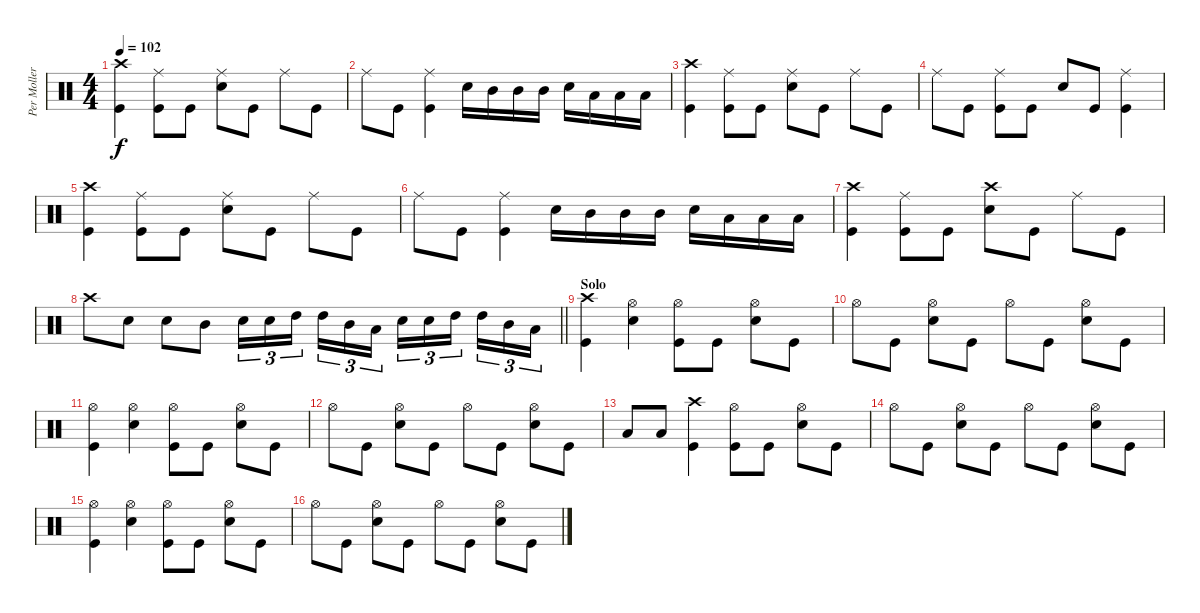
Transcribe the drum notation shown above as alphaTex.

\track ("Per Moller Jensen" "Per Moller") {instrument percussion}
\staff {score}
\articulation defaults
\ts (4 4)
\tempo 102
\clef neutral
\ks c
("Crash high (hit)" "Kick (hit)").4{dy f} ("Ride (middle)" "Kick (hit)").8 "Kick (hit)".8 ("Ride (middle)" "Snare (hit) 2").8 "Kick (hit)".8 "Ride (middle)".8 "Kick (hit)".8 |
"Ride (middle)".8 "Kick (hit)".8 ("Ride (middle)" "Kick (hit)").4 "Snare (hit) 2".16 "Mid Tom (hit)".16 "Mid Tom (hit)".16 "Mid Tom (hit)".16 "Snare (hit) 2".16 "Low Tom (hit)".16 "Low Tom (hit)".16 "Low Tom (hit)".16 |
("Crash high (hit)" "Kick (hit)").4 ("Ride (middle)" "Kick (hit)").8 "Kick (hit)".8 ("Ride (middle)" "Snare (hit) 2").8 "Kick (hit)".8 "Ride (middle)".8 "Kick (hit)".8 |
"Ride (middle)".8 "Kick (hit)".8 ("Ride (middle)" "Kick (hit)").8 "Kick (hit)".8 "Snare (hit) 2".8 "Kick (hit)".8 ("Ride (middle)" "Kick (hit)").4 |
("Crash high (hit)" "Kick (hit)").4 ("Ride (middle)" "Kick (hit)").8 "Kick (hit)".8 ("Ride (middle)" "Snare (hit) 2").8 "Kick (hit)".8 "Ride (middle)".8 "Kick (hit)".8 |
"Ride (middle)".8 "Kick (hit)".8 ("Ride (middle)" "Kick (hit)").4 "Snare (hit) 2".16 "Mid Tom (hit)".16 "Mid Tom (hit)".16 "Mid Tom (hit)".16 "Snare (hit) 2".16 "Low Tom (hit)".16 "Low Tom (hit)".16 "Low Tom (hit)".16 |
("Crash high (hit)" "Kick (hit)").4 ("Ride (middle)" "Kick (hit)").8 "Kick (hit)".8 ("Crash high (hit)" "Snare (hit) 2").8 "Kick (hit)".8 "Ride (middle)".8 "Kick (hit)".8 |
\barLineRight lightlight "Crash high (hit)".8 "Snare (hit) 2".8 "Snare (hit) 2".8 "Mid Tom (hit)".8 "Snare (hit) 2".16{tu (3 2)} "Snare (hit) 2".16{tu (3 2)} "High Tom (hit)".16{tu (3 2) beam splitsecondary} "High Tom (hit)".16{tu (3 2)} "Mid Tom (hit)".16{tu (3 2)} "Low Tom (hit)".16{tu (3 2)} "Snare (hit) 2".16{tu (3 2)} "Snare (hit) 2".16{tu (3 2)} "High Tom (hit)".16{tu (3 2) beam splitsecondary} "High Tom (hit)".16{tu (3 2)} "Mid Tom (hit)".16{tu (3 2)} "Low Tom (hit)".16{tu (3 2)}
|
\section ("" "Solo")
("Crash high (hit)" "Kick (hit)").4 ("Hi-Hat (open)" "Snare (hit) 2").4 ("Hi-Hat (open)" "Kick (hit)").8 "Kick (hit)".8 ("Hi-Hat (open)" "Snare (hit) 2").8 "Kick (hit)".8 |
"Hi-Hat (open)".8 "Kick (hit)".8 ("Hi-Hat (open)" "Snare (hit) 2").8 "Kick (hit)".8 "Hi-Hat (open)".8 "Kick (hit)".8 ("Hi-Hat (open)" "Snare (hit) 2").8 "Kick (hit)".8 |
("Hi-Hat (open)" "Kick (hit)").4 ("Hi-Hat (open)" "Snare (hit) 2").4 ("Hi-Hat (open)" "Kick (hit)").8 "Kick (hit)".8 ("Hi-Hat (open)" "Snare (hit) 2").8 "Kick (hit)".8 |
"Hi-Hat (open)".8 "Kick (hit)".8 ("Hi-Hat (open)" "Snare (hit) 2").8 "Kick (hit)".8 "Hi-Hat (open)".8 "Kick (hit)".8 ("Hi-Hat (open)" "Snare (hit) 2").8 "Kick (hit)".8 |
"Low Tom (hit)".8 "Low Tom (hit)".8 ("Crash high (hit)" "Kick (hit)").4 ("Hi-Hat (open)" "Kick (hit)").8 "Kick (hit)".8 ("Hi-Hat (open)" "Snare (hit) 2").8 "Kick (hit)".8 |
"Hi-Hat (open)".8 "Kick (hit)".8 ("Hi-Hat (open)" "Snare (hit) 2").8 "Kick (hit)".8 "Hi-Hat (open)".8 "Kick (hit)".8 ("Hi-Hat (open)" "Snare (hit) 2").8 "Kick (hit)".8 |
("Hi-Hat (open)" "Kick (hit)").4 ("Hi-Hat (open)" "Snare (hit) 2").4 ("Hi-Hat (open)" "Kick (hit)").8 "Kick (hit)".8 ("Hi-Hat (open)" "Snare (hit) 2").8 "Kick (hit)".8 |
"Hi-Hat (open)".8 "Kick (hit)".8 ("Hi-Hat (open)" "Snare (hit) 2").8 "Kick (hit)".8 "Hi-Hat (open)".8 "Kick (hit)".8 ("Hi-Hat (open)" "Snare (hit) 2").8 "Kick (hit)".8
